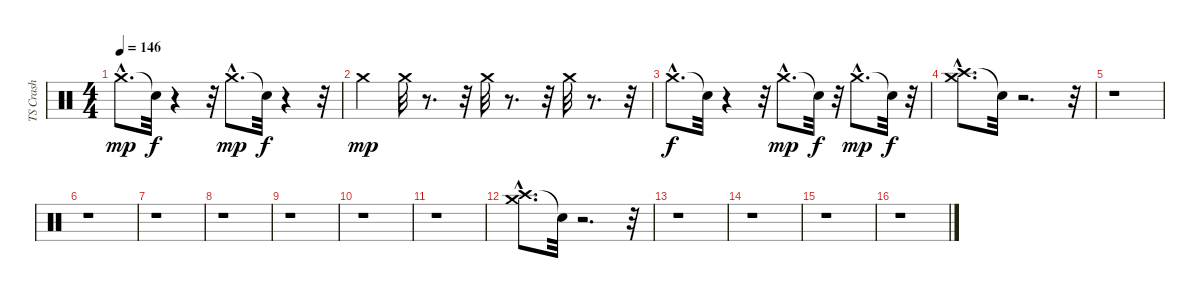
\track ("TS Crash" "TS Crash") {instrument percussion}
\staff {score}
\articulation defaults
\ts (4 4)
\tempo 146
\clef neutral
\ks c "Crash medium (hit)"{hac}.8{d dy mp} "Snare (hit)"{t}.32{dy f}
r.4 r.32 "Crash medium (hit)"{hac}.8{d dy mp} "Snare (hit)"{t}.32{dy f} r.4 r.32 |
"Crash medium (hit)".4{dy mp} "Crash medium (hit)".32 r.8{d} r.32 "Crash medium (hit)".32 r.8{d} r.32 "Crash medium (hit)".32 r.8{d} r.32 |
"Crash medium (hit)"{hac}.8{d dy f} "Snare (hit)"{t}.32 r.4 r.32 "Crash medium (hit)"{hac}.8{d dy mp} "Snare (hit)"{t}.32{dy f} r.32 "Crash medium (hit)"{hac}.8{d dy mp} "Snare (hit)"{t}.32{dy f} r.32 |
("Crash high (hit)"{hac} "Crash medium (hit)"{hac}).8{d} "Snare (hit)"{t}.32 r.2{d} r.32 |
r.1 |
r.1 |
r.1 |
r.1 |
r.1 |
r.1 |
r.1 |
("Crash high (hit)"{hac} "Crash medium (hit)"{hac}).8{d} "Snare (hit)"{t}.32 r.2{d} r.32 |
r.1 |
r.1 |
r.1 |
r.1
